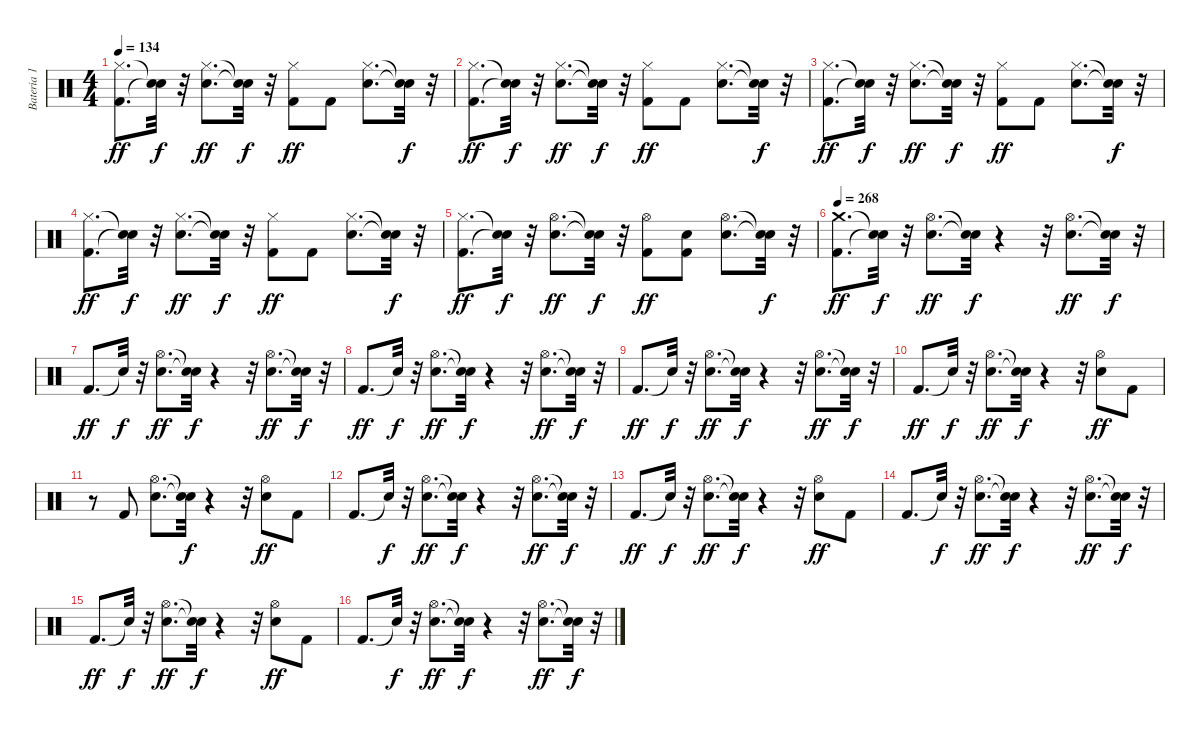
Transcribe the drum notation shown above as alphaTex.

\track ("Bateria 1" "Bateria 1") {instrument percussion}
\staff {score}
\articulation defaults
\ts (4 4)
\tempo 134
\clef neutral
\ks c
("Kick (hit) 2" "Hi-Hat (closed)").8{d dy ff} ("Snare (hit)"{t} "Snare (hit)"{t}).32{dy f} r.32 ("Electric Snare (hit)" "Hi-Hat (closed)").8{d dy ff} ("Snare (hit)"{t} "Snare (hit)"{t}).32{dy f} r.32 ("Kick (hit) 2" "Hi-Hat (closed)").8{dy ff} "Kick (hit) 2".8 ("Electric Snare (hit)" "Hi-Hat (closed)").8{d} ("Snare (hit)"{t} "Snare (hit)"{t}).32{dy f} r.32 |
("Kick (hit) 2" "Hi-Hat (closed)").8{d dy ff} ("Snare (hit)"{t} "Snare (hit)"{t}).32{dy f} r.32 ("Electric Snare (hit)" "Hi-Hat (closed)").8{d dy ff} ("Snare (hit)"{t} "Snare (hit)"{t}).32{dy f} r.32 ("Kick (hit) 2" "Hi-Hat (closed)").8{dy ff} "Kick (hit) 2".8 ("Electric Snare (hit)" "Hi-Hat (closed)").8{d} ("Snare (hit)"{t} "Snare (hit)"{t}).32{dy f} r.32 |
("Kick (hit) 2" "Hi-Hat (closed)").8{d dy ff} ("Snare (hit)"{t} "Snare (hit)"{t}).32{dy f} r.32 ("Electric Snare (hit)" "Hi-Hat (closed)").8{d dy ff} ("Snare (hit)"{t} "Snare (hit)"{t}).32{dy f} r.32 ("Kick (hit) 2" "Hi-Hat (closed)").8{dy ff} "Kick (hit) 2".8 ("Electric Snare (hit)" "Hi-Hat (closed)").8{d} ("Snare (hit)"{t} "Snare (hit)"{t}).32{dy f} r.32 |
("Kick (hit) 2" "Hi-Hat (closed)").8{d dy ff} ("Snare (hit)"{t} "Snare (hit)"{t}).32{dy f} r.32 ("Electric Snare (hit)" "Hi-Hat (closed)").8{d dy ff} ("Snare (hit)"{t} "Snare (hit)"{t}).32{dy f} r.32 ("Kick (hit) 2" "Hi-Hat (closed)").8{dy ff} "Kick (hit) 2".8 ("Electric Snare (hit)" "Hi-Hat (closed)").8{d} ("Snare (hit)"{t} "Snare (hit)"{t}).32{dy f} r.32 |
("Kick (hit) 2" "Hi-Hat (closed)").8{d dy ff} ("Snare (hit)"{t} "Snare (hit)"{t}).32{dy f} r.32 ("Electric Snare (hit)" "Hi-Hat (open)").8{d dy ff} ("Snare (hit)"{t} "Snare (hit)"{t}).32{dy f} r.32 ("Kick (hit) 2" "Hi-Hat (open)").8{dy ff} ("Kick (hit) 2" "Electric Snare (hit)").8 ("Electric Snare (hit)" "Hi-Hat (open)").8{d} ("Snare (hit)"{t} "Snare (hit)"{t}).32{dy f} r.32 |
\tempo 268
("Kick (hit) 2" "Crash medium (hit)").8{d dy ff} ("Snare (hit)"{t} "Snare (hit)"{t}).32{dy f} r.32 ("Electric Snare (hit)" "Hi-Hat (open)").8{d dy ff} ("Snare (hit)"{t} "Snare (hit)"{t}).32{dy f} r.4 r.32 ("Electric Snare (hit)" "Hi-Hat (open)").8{d dy ff} ("Snare (hit)"{t} "Snare (hit)"{t}).32{dy f} r.32 |
"Kick (hit) 2".8{d dy ff} "Snare (hit)"{t}.32{dy f} r.32 ("Electric Snare (hit)" "Hi-Hat (open)").8{d dy ff} ("Snare (hit)"{t} "Snare (hit)"{t}).32{dy f} r.4 r.32 ("Electric Snare (hit)" "Hi-Hat (open)").8{d dy ff} ("Snare (hit)"{t} "Snare (hit)"{t}).32{dy f} r.32 |
"Kick (hit) 2".8{d dy ff} "Snare (hit)"{t}.32{dy f} r.32 ("Electric Snare (hit)" "Hi-Hat (open)").8{d dy ff} ("Snare (hit)"{t} "Snare (hit)"{t}).32{dy f} r.4 r.32 ("Electric Snare (hit)" "Hi-Hat (open)").8{d dy ff} ("Snare (hit)"{t} "Snare (hit)"{t}).32{dy f} r.32 |
"Kick (hit) 2".8{d dy ff} "Snare (hit)"{t}.32{dy f} r.32 ("Electric Snare (hit)" "Hi-Hat (open)").8{d dy ff} ("Snare (hit)"{t} "Snare (hit)"{t}).32{dy f} r.4 r.32 ("Electric Snare (hit)" "Hi-Hat (open)").8{d dy ff} ("Snare (hit)"{t} "Snare (hit)"{t}).32{dy f} r.32 |
"Kick (hit) 2".8{d dy ff} "Snare (hit)"{t}.32{dy f} r.32 ("Electric Snare (hit)" "Hi-Hat (open)").8{d dy ff} ("Snare (hit)"{t} "Snare (hit)"{t}).32{dy f} r.4 r.32 ("Electric Snare (hit)" "Hi-Hat (open)").8{dy ff} "Kick (hit) 2".8 |
r.8 "Kick (hit) 2".8 ("Electric Snare (hit)" "Hi-Hat (open)").8{d} ("Snare (hit)"{t} "Snare (hit)"{t}).32{dy f} r.4 r.32 ("Electric Snare (hit)" "Hi-Hat (open)").8{dy ff} "Kick (hit) 2".8 |
"Kick (hit) 2".8{d} "Snare (hit)"{t}.32{dy f} r.32 ("Electric Snare (hit)" "Hi-Hat (open)").8{d dy ff} ("Snare (hit)"{t} "Snare (hit)"{t}).32{dy f} r.4 r.32 ("Electric Snare (hit)" "Hi-Hat (open)").8{d dy ff} ("Snare (hit)"{t} "Snare (hit)"{t}).32{dy f} r.32 |
"Kick (hit) 2".8{d dy ff} "Snare (hit)"{t}.32{dy f} r.32 ("Electric Snare (hit)" "Hi-Hat (open)").8{d dy ff} ("Snare (hit)"{t} "Snare (hit)"{t}).32{dy f} r.4 r.32 ("Electric Snare (hit)" "Hi-Hat (open)").8{dy ff} "Kick (hit) 2".8 |
"Kick (hit) 2".8{d} "Snare (hit)"{t}.32{dy f} r.32 ("Electric Snare (hit)" "Hi-Hat (open)").8{d dy ff} ("Snare (hit)"{t} "Snare (hit)"{t}).32{dy f} r.4 r.32 ("Electric Snare (hit)" "Hi-Hat (open)").8{d dy ff} ("Snare (hit)"{t} "Snare (hit)"{t}).32{dy f} r.32 |
"Kick (hit) 2".8{d dy ff} "Snare (hit)"{t}.32{dy f} r.32 ("Electric Snare (hit)" "Hi-Hat (open)").8{d dy ff} ("Snare (hit)"{t} "Snare (hit)"{t}).32{dy f} r.4 r.32 ("Electric Snare (hit)" "Hi-Hat (open)").8{dy ff} "Kick (hit) 2".8 |
"Kick (hit) 2".8{d} "Snare (hit)"{t}.32{dy f} r.32 ("Electric Snare (hit)" "Hi-Hat (open)").8{d dy ff} ("Snare (hit)"{t} "Snare (hit)"{t}).32{dy f} r.4 r.32 ("Electric Snare (hit)" "Hi-Hat (open)").8{d dy ff} ("Snare (hit)"{t} "Snare (hit)"{t}).32{dy f} r.32
